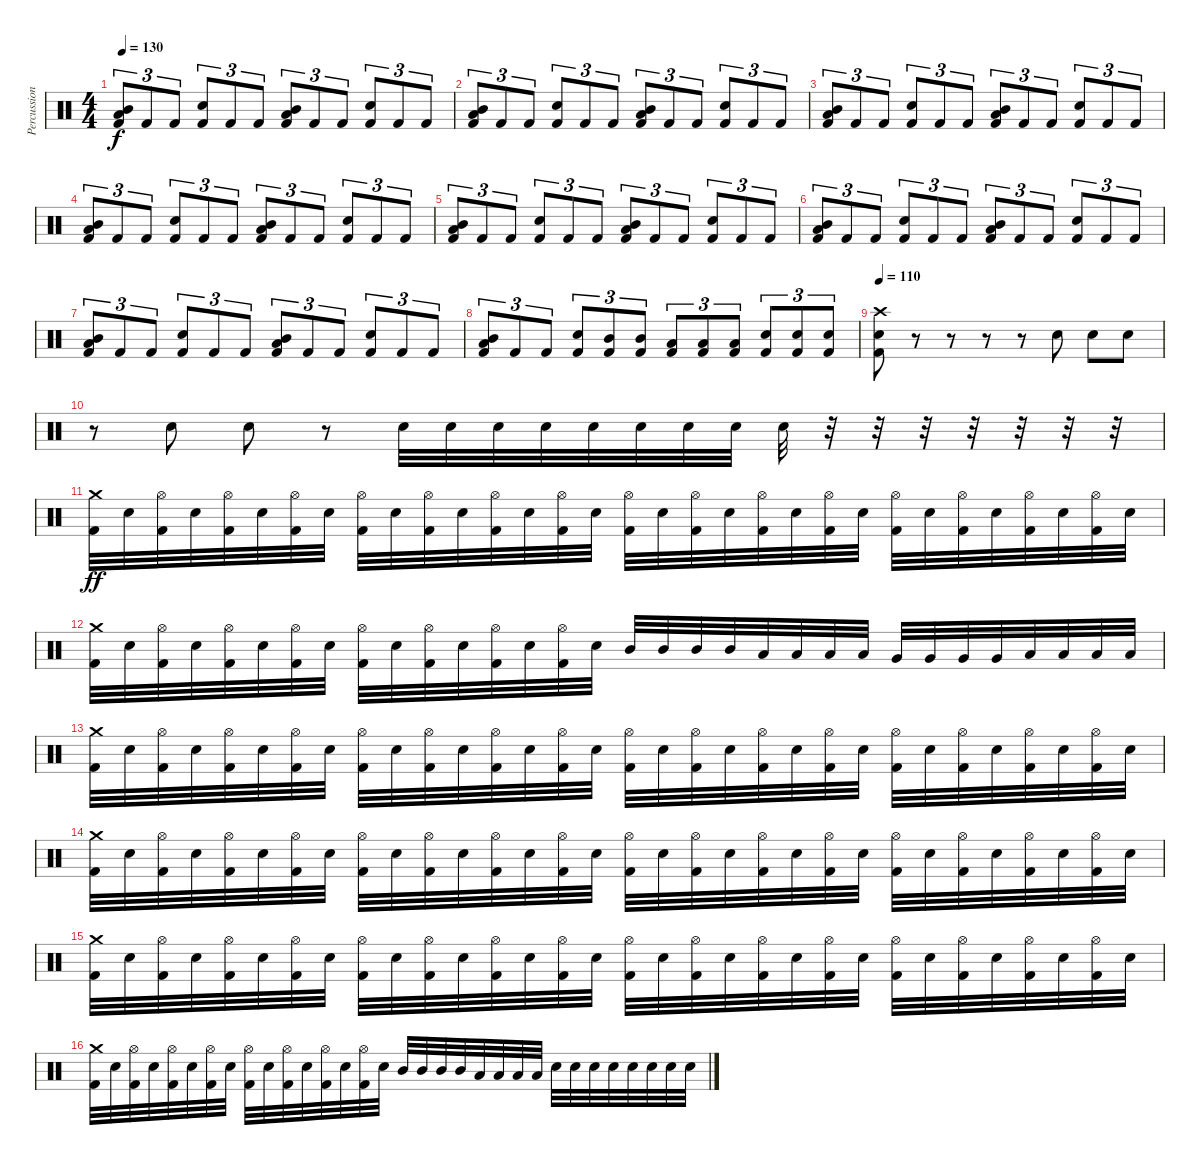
\track ("Percussion" "Percussion") {instrument percussion}
\staff {score}
\articulation defaults
\ts (4 4)
\tempo 130
\clef neutral
\ks c
("Mid Tom (hit)" "Low Tom (hit)" "Kick (hit) 2").8{tu (3 2) dy f} "Kick (hit) 2".8{tu (3 2)} "Kick (hit) 2".8{tu (3 2)} ("Electric Snare (hit)" "Kick (hit) 2").8{tu (3 2)} "Kick (hit) 2".8{tu (3 2)} "Kick (hit) 2".8{tu (3 2)} ("Low Tom (hit)" "Mid Tom (hit)" "Kick (hit) 2").8{tu (3 2)} "Kick (hit) 2".8{tu (3 2)} "Kick (hit) 2".8{tu (3 2)} ("Electric Snare (hit)" "Kick (hit) 2").8{tu (3 2)} "Kick (hit) 2".8{tu (3 2)} "Kick (hit) 2".8{tu (3 2)} |
("Mid Tom (hit)" "Low Tom (hit)" "Kick (hit) 2").8{tu (3 2)} "Kick (hit) 2".8{tu (3 2)} "Kick (hit) 2".8{tu (3 2)} ("Electric Snare (hit)" "Kick (hit) 2").8{tu (3 2)} "Kick (hit) 2".8{tu (3 2)} "Kick (hit) 2".8{tu (3 2)} ("Low Tom (hit)" "Mid Tom (hit)" "Kick (hit) 2").8{tu (3 2)} "Kick (hit) 2".8{tu (3 2)} "Kick (hit) 2".8{tu (3 2)} ("Electric Snare (hit)" "Kick (hit) 2").8{tu (3 2)} "Kick (hit) 2".8{tu (3 2)} "Kick (hit) 2".8{tu (3 2)} |
("Mid Tom (hit)" "Low Tom (hit)" "Kick (hit) 2").8{tu (3 2)} "Kick (hit) 2".8{tu (3 2)} "Kick (hit) 2".8{tu (3 2)} ("Electric Snare (hit)" "Kick (hit) 2").8{tu (3 2)} "Kick (hit) 2".8{tu (3 2)} "Kick (hit) 2".8{tu (3 2)} ("Low Tom (hit)" "Mid Tom (hit)" "Kick (hit) 2").8{tu (3 2)} "Kick (hit) 2".8{tu (3 2)} "Kick (hit) 2".8{tu (3 2)} ("Electric Snare (hit)" "Kick (hit) 2").8{tu (3 2)} "Kick (hit) 2".8{tu (3 2)} "Kick (hit) 2".8{tu (3 2)} |
("Mid Tom (hit)" "Low Tom (hit)" "Kick (hit) 2").8{tu (3 2)} "Kick (hit) 2".8{tu (3 2)} "Kick (hit) 2".8{tu (3 2)} ("Electric Snare (hit)" "Kick (hit) 2").8{tu (3 2)} "Kick (hit) 2".8{tu (3 2)} "Kick (hit) 2".8{tu (3 2)} ("Low Tom (hit)" "Mid Tom (hit)" "Kick (hit) 2").8{tu (3 2)} "Kick (hit) 2".8{tu (3 2)} "Kick (hit) 2".8{tu (3 2)} ("Electric Snare (hit)" "Kick (hit) 2").8{tu (3 2)} "Kick (hit) 2".8{tu (3 2)} "Kick (hit) 2".8{tu (3 2)} |
("Mid Tom (hit)" "Low Tom (hit)" "Kick (hit) 2").8{tu (3 2)} "Kick (hit) 2".8{tu (3 2)} "Kick (hit) 2".8{tu (3 2)} ("Electric Snare (hit)" "Kick (hit) 2").8{tu (3 2)} "Kick (hit) 2".8{tu (3 2)} "Kick (hit) 2".8{tu (3 2)} ("Low Tom (hit)" "Mid Tom (hit)" "Kick (hit) 2").8{tu (3 2)} "Kick (hit) 2".8{tu (3 2)} "Kick (hit) 2".8{tu (3 2)} ("Electric Snare (hit)" "Kick (hit) 2").8{tu (3 2)} "Kick (hit) 2".8{tu (3 2)} "Kick (hit) 2".8{tu (3 2)} |
("Mid Tom (hit)" "Low Tom (hit)" "Kick (hit) 2").8{tu (3 2)} "Kick (hit) 2".8{tu (3 2)} "Kick (hit) 2".8{tu (3 2)} ("Electric Snare (hit)" "Kick (hit) 2").8{tu (3 2)} "Kick (hit) 2".8{tu (3 2)} "Kick (hit) 2".8{tu (3 2)} ("Low Tom (hit)" "Mid Tom (hit)" "Kick (hit) 2").8{tu (3 2)} "Kick (hit) 2".8{tu (3 2)} "Kick (hit) 2".8{tu (3 2)} ("Electric Snare (hit)" "Kick (hit) 2").8{tu (3 2)} "Kick (hit) 2".8{tu (3 2)} "Kick (hit) 2".8{tu (3 2)} |
("Mid Tom (hit)" "Low Tom (hit)" "Kick (hit) 2").8{tu (3 2)} "Kick (hit) 2".8{tu (3 2)} "Kick (hit) 2".8{tu (3 2)} ("Electric Snare (hit)" "Kick (hit) 2").8{tu (3 2)} "Kick (hit) 2".8{tu (3 2)} "Kick (hit) 2".8{tu (3 2)} ("Low Tom (hit)" "Mid Tom (hit)" "Kick (hit) 2").8{tu (3 2)} "Kick (hit) 2".8{tu (3 2)} "Kick (hit) 2".8{tu (3 2)} ("Electric Snare (hit)" "Kick (hit) 2").8{tu (3 2)} "Kick (hit) 2".8{tu (3 2)} "Kick (hit) 2".8{tu (3 2)} |
("Mid Tom (hit)" "Low Tom (hit)" "Kick (hit) 2").8{tu (3 2)} "Kick (hit) 2".8{tu (3 2)} "Kick (hit) 2".8{tu (3 2)} ("Electric Snare (hit)" "Kick (hit) 2").8{tu (3 2)} ("Mid Tom (hit)" "Kick (hit) 2").8{tu (3 2)} ("Mid Tom (hit)" "Kick (hit) 2").8{tu (3 2)} ("Low Tom (hit)" "Kick (hit) 2").8{tu (3 2)} ("Low Tom (hit)" "Kick (hit) 2").8{tu (3 2)} ("Low Tom (hit)" "Kick (hit) 2").8{tu (3 2)} ("Electric Snare (hit)" "Kick (hit) 2").8{tu (3 2)} ("Electric Snare (hit)" "Kick (hit) 2").8{tu (3 2)} ("Electric Snare (hit)" "Kick (hit) 2").8{tu (3 2)} |
\tempo 110
("Crash high (hit)" "Electric Snare (hit)" "Kick (hit) 2").8 r.8 r.8 r.8 r.8 "Electric Snare (hit)".8 "Electric Snare (hit)".8 "Electric Snare (hit)".8 |
r.8 "Electric Snare (hit)".8 "Electric Snare (hit)".8 r.8 "Electric Snare (hit)".32 "Electric Snare (hit)".32 "Electric Snare (hit)".32 "Electric Snare (hit)".32 "Electric Snare (hit)".32 "Electric Snare (hit)".32 "Electric Snare (hit)".32 "Electric Snare (hit)".32 "Electric Snare (hit)".32 r.32 r.32 r.32 r.32 r.32 r.32 r.32 |
("Crash medium (hit)" "Kick (hit) 2").32{dy ff} "Electric Snare (hit)".32 ("Hi-Hat (open)" "Kick (hit) 2").32 "Electric Snare (hit)".32 ("Hi-Hat (open)" "Kick (hit) 2").32 "Electric Snare (hit)".32 ("Hi-Hat (open)" "Kick (hit) 2").32 "Electric Snare (hit)".32 ("Hi-Hat (open)" "Kick (hit) 2").32 "Electric Snare (hit)".32 ("Hi-Hat (open)" "Kick (hit) 2").32 "Electric Snare (hit)".32 ("Hi-Hat (open)" "Kick (hit) 2").32 "Electric Snare (hit)".32 ("Hi-Hat (open)" "Kick (hit) 2").32 "Electric Snare (hit)".32 ("Hi-Hat (open)" "Kick (hit) 2").32 "Electric Snare (hit)".32 ("Hi-Hat (open)" "Kick (hit) 2").32 "Electric Snare (hit)".32 ("Hi-Hat (open)" "Kick (hit) 2").32 "Electric Snare (hit)".32 ("Hi-Hat (open)" "Kick (hit) 2").32 "Electric Snare (hit)".32 ("Hi-Hat (open)" "Kick (hit) 2").32 "Electric Snare (hit)".32 ("Hi-Hat (open)" "Kick (hit) 2").32 "Electric Snare (hit)".32 ("Hi-Hat (open)" "Kick (hit) 2").32 "Electric Snare (hit)".32 ("Hi-Hat (open)" "Kick (hit) 2").32 "Electric Snare (hit)".32 |
("Crash medium (hit)" "Kick (hit) 2").32 "Electric Snare (hit)".32 ("Hi-Hat (open)" "Kick (hit) 2").32 "Electric Snare (hit)".32 ("Hi-Hat (open)" "Kick (hit) 2").32 "Electric Snare (hit)".32 ("Hi-Hat (open)" "Kick (hit) 2").32 "Electric Snare (hit)".32 ("Hi-Hat (open)" "Kick (hit) 2").32 "Electric Snare (hit)".32 ("Hi-Hat (open)" "Kick (hit) 2").32 "Electric Snare (hit)".32 ("Hi-Hat (open)" "Kick (hit) 2").32 "Electric Snare (hit)".32 ("Hi-Hat (open)" "Kick (hit) 2").32 "Electric Snare (hit)".32 "Mid Tom (hit)".32 "Mid Tom (hit)".32 "Mid Tom (hit)".32 "Mid Tom (hit)".32 "Low Tom (hit)".32 "Low Tom (hit)".32 "Low Tom (hit)".32 "Low Tom (hit)".32 "Very Low Tom (hit)".32 "Very Low Tom (hit)".32 "Very Low Tom (hit)".32 "Very Low Tom (hit)".32 "Low Floor Tom (hit)".32 "Low Floor Tom (hit)".32 "Low Floor Tom (hit)".32 "Low Floor Tom (hit)".32 |
("Crash medium (hit)" "Kick (hit) 2").32 "Electric Snare (hit)".32 ("Hi-Hat (open)" "Kick (hit) 2").32 "Electric Snare (hit)".32 ("Hi-Hat (open)" "Kick (hit) 2").32 "Electric Snare (hit)".32 ("Hi-Hat (open)" "Kick (hit) 2").32 "Electric Snare (hit)".32 ("Hi-Hat (open)" "Kick (hit) 2").32 "Electric Snare (hit)".32 ("Hi-Hat (open)" "Kick (hit) 2").32 "Electric Snare (hit)".32 ("Hi-Hat (open)" "Kick (hit) 2").32 "Electric Snare (hit)".32 ("Hi-Hat (open)" "Kick (hit) 2").32 "Electric Snare (hit)".32 ("Hi-Hat (open)" "Kick (hit) 2").32 "Electric Snare (hit)".32 ("Hi-Hat (open)" "Kick (hit) 2").32 "Electric Snare (hit)".32 ("Hi-Hat (open)" "Kick (hit) 2").32 "Electric Snare (hit)".32 ("Hi-Hat (open)" "Kick (hit) 2").32 "Electric Snare (hit)".32 ("Hi-Hat (open)" "Kick (hit) 2").32 "Electric Snare (hit)".32 ("Hi-Hat (open)" "Kick (hit) 2").32 "Electric Snare (hit)".32 ("Hi-Hat (open)" "Kick (hit) 2").32 "Electric Snare (hit)".32 ("Hi-Hat (open)" "Kick (hit) 2").32 "Electric Snare (hit)".32 |
("Crash medium (hit)" "Kick (hit) 2").32 "Electric Snare (hit)".32 ("Hi-Hat (open)" "Kick (hit) 2").32 "Electric Snare (hit)".32 ("Hi-Hat (open)" "Kick (hit) 2").32 "Electric Snare (hit)".32 ("Hi-Hat (open)" "Kick (hit) 2").32 "Electric Snare (hit)".32 ("Hi-Hat (open)" "Kick (hit) 2").32 "Electric Snare (hit)".32 ("Hi-Hat (open)" "Kick (hit) 2").32 "Electric Snare (hit)".32 ("Hi-Hat (open)" "Kick (hit) 2").32 "Electric Snare (hit)".32 ("Hi-Hat (open)" "Kick (hit) 2").32 "Electric Snare (hit)".32 ("Hi-Hat (open)" "Kick (hit) 2").32 "Electric Snare (hit)".32 ("Hi-Hat (open)" "Kick (hit) 2").32 "Electric Snare (hit)".32 ("Hi-Hat (open)" "Kick (hit) 2").32 "Electric Snare (hit)".32 ("Hi-Hat (open)" "Kick (hit) 2").32 "Electric Snare (hit)".32 ("Hi-Hat (open)" "Kick (hit) 2").32 "Electric Snare (hit)".32 ("Hi-Hat (open)" "Kick (hit) 2").32 "Electric Snare (hit)".32 ("Hi-Hat (open)" "Kick (hit) 2").32 "Electric Snare (hit)".32 ("Hi-Hat (open)" "Kick (hit) 2").32 "Electric Snare (hit)".32 |
("Crash medium (hit)" "Kick (hit) 2").32 "Electric Snare (hit)".32 ("Hi-Hat (open)" "Kick (hit) 2").32 "Electric Snare (hit)".32 ("Hi-Hat (open)" "Kick (hit) 2").32 "Electric Snare (hit)".32 ("Hi-Hat (open)" "Kick (hit) 2").32 "Electric Snare (hit)".32 ("Hi-Hat (open)" "Kick (hit) 2").32 "Electric Snare (hit)".32 ("Hi-Hat (open)" "Kick (hit) 2").32 "Electric Snare (hit)".32 ("Hi-Hat (open)" "Kick (hit) 2").32 "Electric Snare (hit)".32 ("Hi-Hat (open)" "Kick (hit) 2").32 "Electric Snare (hit)".32 ("Hi-Hat (open)" "Kick (hit) 2").32 "Electric Snare (hit)".32 ("Hi-Hat (open)" "Kick (hit) 2").32 "Electric Snare (hit)".32 ("Hi-Hat (open)" "Kick (hit) 2").32 "Electric Snare (hit)".32 ("Hi-Hat (open)" "Kick (hit) 2").32 "Electric Snare (hit)".32 ("Hi-Hat (open)" "Kick (hit) 2").32 "Electric Snare (hit)".32 ("Hi-Hat (open)" "Kick (hit) 2").32 "Electric Snare (hit)".32 ("Hi-Hat (open)" "Kick (hit) 2").32 "Electric Snare (hit)".32 ("Hi-Hat (open)" "Kick (hit) 2").32 "Electric Snare (hit)".32 |
("Crash medium (hit)" "Kick (hit) 2").32 "Electric Snare (hit)".32 ("Hi-Hat (open)" "Kick (hit) 2").32 "Electric Snare (hit)".32 ("Hi-Hat (open)" "Kick (hit) 2").32 "Electric Snare (hit)".32 ("Hi-Hat (open)" "Kick (hit) 2").32 "Electric Snare (hit)".32 ("Hi-Hat (open)" "Kick (hit) 2").32 "Electric Snare (hit)".32 ("Hi-Hat (open)" "Kick (hit) 2").32 "Electric Snare (hit)".32 ("Hi-Hat (open)" "Kick (hit) 2").32 "Electric Snare (hit)".32 ("Hi-Hat (open)" "Kick (hit) 2").32 "Electric Snare (hit)".32 "Mid Tom (hit)".32 "Mid Tom (hit)".32 "Mid Tom (hit)".32 "Mid Tom (hit)".32 "Low Tom (hit)".32 "Low Tom (hit)".32 "Low Tom (hit)".32 "Low Tom (hit)".32 "Electric Snare (hit)".32 "Electric Snare (hit)".32 "Electric Snare (hit)".32 "Electric Snare (hit)".32 "Electric Snare (hit)".32 "Electric Snare (hit)".32 "Electric Snare (hit)".32 "Electric Snare (hit)".32
